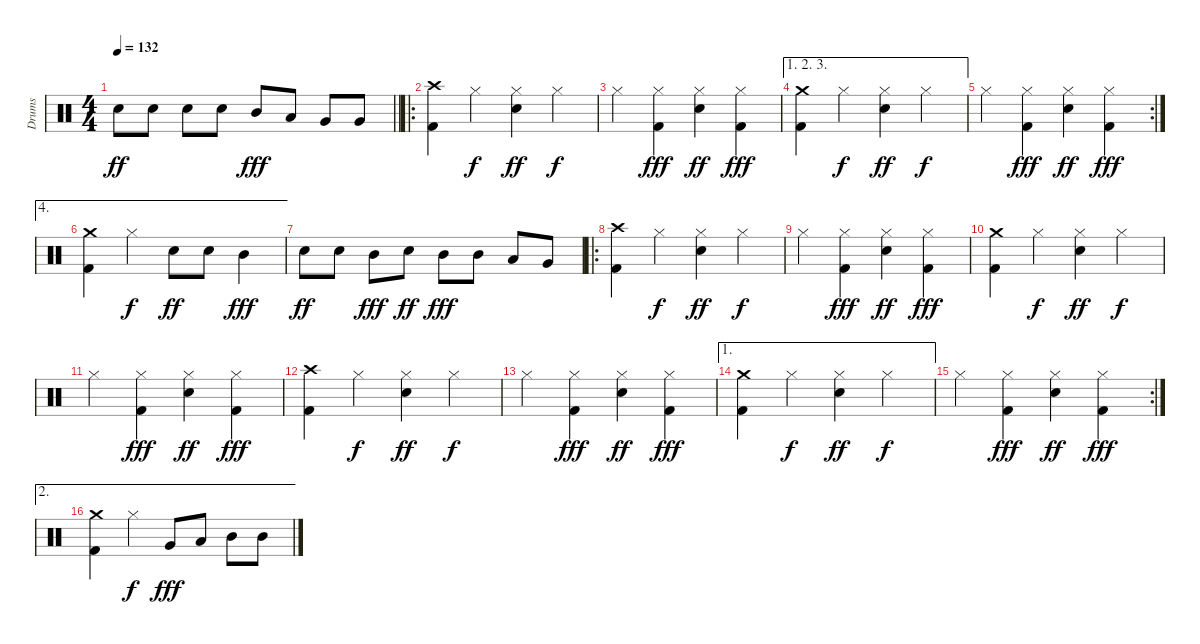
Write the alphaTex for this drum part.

\track ("Drums" "Drums") {instrument percussion}
\staff {score}
\articulation defaults
\ts (4 4)
\tempo 132
\clef neutral
\barLineRight lightlight
\ks c "Electric Snare (hit)".8{dy ff} "Electric Snare (hit)".8 "Electric Snare (hit)".8 "Electric Snare (hit)".8 "Mid Tom (hit)".8{dy fff} "Low Tom (hit)".8 "Very Low Tom (hit)".8 "Very Low Tom (hit)".8
|
\ro
("Crash high (hit)" "Kick (hit) 2").4 "Hi-Hat (closed)".4{dy f} ("Hi-Hat (closed)" "Electric Snare (hit)").4{dy ff} "Hi-Hat (closed)".4{dy f} |
"Hi-Hat (closed)".4 ("Hi-Hat (closed)" "Kick (hit) 2").4{dy fff} ("Hi-Hat (closed)" "Electric Snare (hit)").4{dy ff} ("Hi-Hat (closed)" "Kick (hit) 2").4{dy fff} |
\ae (1 2 3)
("Crash medium (hit)" "Kick (hit) 2").4 "Hi-Hat (closed)".4{dy f} ("Hi-Hat (closed)" "Electric Snare (hit)").4{dy ff} "Hi-Hat (closed)".4{dy f} |
\rc 2 "Hi-Hat (closed)".4
("Hi-Hat (closed)" "Kick (hit) 2").4{dy fff} ("Hi-Hat (closed)" "Electric Snare (hit)").4{dy ff} ("Hi-Hat (closed)" "Kick (hit) 2").4{dy fff} |
\ae 4
("Crash medium (hit)" "Kick (hit) 2").4 "Hi-Hat (closed)".4{dy f} "Electric Snare (hit)".8{dy ff} "Electric Snare (hit)".8 "Mid Tom (hit)".4{dy fff} |
"Electric Snare (hit)".8{dy ff} "Electric Snare (hit)".8 "Mid Tom (hit)".8{dy fff} "Electric Snare (hit)".8{dy ff} "Mid Tom (hit)".8{dy fff} "Mid Tom (hit)".8 "Low Tom (hit)".8 "Very Low Tom (hit)".8 |
\ro
("Crash high (hit)" "Kick (hit) 2").4 "Hi-Hat (closed)".4{dy f} ("Hi-Hat (closed)" "Electric Snare (hit)").4{dy ff} "Hi-Hat (closed)".4{dy f} |
"Hi-Hat (closed)".4 ("Hi-Hat (closed)" "Kick (hit) 2").4{dy fff} ("Hi-Hat (closed)" "Electric Snare (hit)").4{dy ff} ("Hi-Hat (closed)" "Kick (hit) 2").4{dy fff} |
("Crash medium (hit)" "Kick (hit) 2").4 "Hi-Hat (closed)".4{dy f} ("Hi-Hat (closed)" "Electric Snare (hit)").4{dy ff} "Hi-Hat (closed)".4{dy f} |
"Hi-Hat (closed)".4 ("Hi-Hat (closed)" "Kick (hit) 2").4{dy fff} ("Hi-Hat (closed)" "Electric Snare (hit)").4{dy ff} ("Hi-Hat (closed)" "Kick (hit) 2").4{dy fff} |
("Crash high (hit)" "Kick (hit) 2").4 "Hi-Hat (closed)".4{dy f} ("Hi-Hat (closed)" "Electric Snare (hit)").4{dy ff} "Hi-Hat (closed)".4{dy f} |
"Hi-Hat (closed)".4 ("Hi-Hat (closed)" "Kick (hit) 2").4{dy fff} ("Hi-Hat (closed)" "Electric Snare (hit)").4{dy ff} ("Hi-Hat (closed)" "Kick (hit) 2").4{dy fff} |
\ae 1
("Crash medium (hit)" "Kick (hit) 2").4 "Hi-Hat (closed)".4{dy f} ("Hi-Hat (closed)" "Electric Snare (hit)").4{dy ff} "Hi-Hat (closed)".4{dy f} |
\rc 2 "Hi-Hat (closed)".4
("Hi-Hat (closed)" "Kick (hit) 2").4{dy fff} ("Hi-Hat (closed)" "Electric Snare (hit)").4{dy ff} ("Hi-Hat (closed)" "Kick (hit) 2").4{dy fff} |
\ae 2
("Crash medium (hit)" "Kick (hit) 2").4 "Hi-Hat (closed)".4{dy f} "Very Low Tom (hit)".8{dy fff} "Low Tom (hit)".8 "Mid Tom (hit)".8 "Mid Tom (hit)".8
